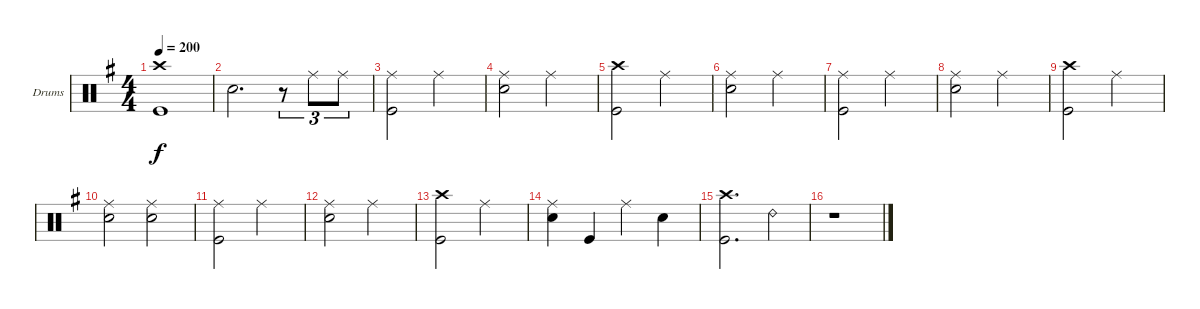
\bracketExtendMode groupsimilarinstruments
\firstSystemTrackNameOrientation horizontal
\otherSystemsTrackNameOrientation horizontal
\track ("Drumkit" "Drums") {instrument percussion}
\staff {score}
\articulation defaults
\ts (4 4)
\tempo 200
\clef neutral
\ks g
("Crash high (hit)" "Kick (hit)").1{dy f} |
"Snare (hit) 2".2{d} r.8{tu (3 2)} "Ride (middle)".8{tu (3 2)} "Ride (middle)".8{tu (3 2)} |
("Ride (middle)" "Kick (hit)").2 "Ride (middle)".2 |
("Ride (middle)" "Snare (hit) 2").2 "Ride (middle)".2 |
("Crash high (hit)" "Kick (hit)").2 "Ride (middle)".2 |
("Ride (middle)" "Snare (hit) 2").2 "Ride (middle)".2 |
("Ride (middle)" "Kick (hit)").2 "Ride (middle)".2 |
("Ride (middle)" "Snare (hit) 2").2 "Ride (middle)".2 |
("Crash high (hit)" "Kick (hit)").2 "Ride (middle)".2 |
("Ride (middle)" "Snare (hit) 2").2 ("Ride (middle)" "Snare (hit) 2").2 |
("Ride (middle)" "Kick (hit)").2 "Ride (middle)".2 |
("Ride (middle)" "Snare (hit) 2").2 "Ride (middle)".2 |
("Crash high (hit)" "Kick (hit)").2 "Ride (middle)".2 |
("Ride (middle)" "Snare (hit) 2").4 "Kick (hit)".4 "Ride (middle)".4 "Snare (hit) 2".4 |
("Crash high (hit)" "Kick (hit)").2{d} "Ride (bell) 2".4 |
r.1
